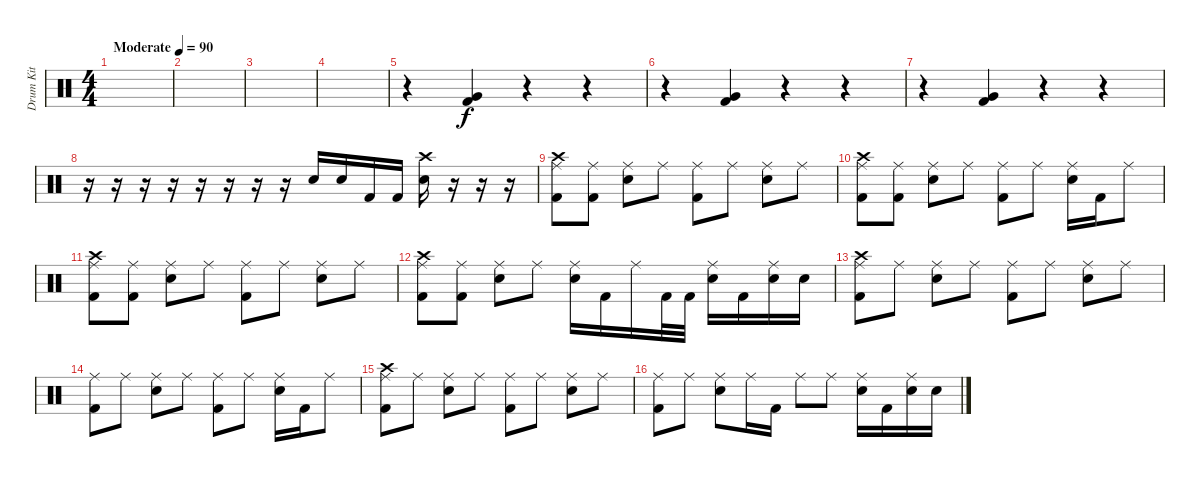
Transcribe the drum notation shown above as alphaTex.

\track ("Drum Kit" "Drum Kit") {instrument percussion}
\staff {score}
\articulation defaults
\ts (4 4)
\tempo (90 "Moderate")
\clef neutral
\ks c
|
|
|
|
r.4 ("Very Low Tom (hit)" "Kick (hit) 2").4 r.4 r.4 |
r.4 ("Very Low Tom (hit)" "Kick (hit) 2").4 r.4 r.4 |
r.4 ("Very Low Tom (hit)" "Kick (hit) 2").4 r.4 r.4 |
r.16 r.16 r.16 r.16 r.16 r.16 r.16 r.16 "Snare (hit) 2".16 "Snare (hit) 2".16 "Kick (hit) 2".16 "Kick (hit) 2".16 ("Crash high (hit)" "Snare (hit) 2").16 r.16 r.16 r.16 |
("Ride (middle)" "Crash high (hit)" "Kick (hit) 2").8 ("Ride (middle)" "Kick (hit) 2").8 ("Ride (middle)" "Snare (hit) 2").8 "Ride (middle)".8 ("Ride (middle)" "Kick (hit) 2").8 "Ride (middle)".8 ("Ride (middle)" "Snare (hit) 2").8 "Ride (middle)".8 |
("Ride (middle)" "Crash high (hit)" "Kick (hit) 2").8 ("Ride (middle)" "Kick (hit) 2").8 ("Ride (middle)" "Snare (hit) 2").8 "Ride (middle)".8 ("Ride (middle)" "Kick (hit) 2").8 "Ride (middle)".8 ("Ride (middle)" "Snare (hit) 2").16 "Kick (hit) 2".16 "Ride (middle)".8 |
("Ride (middle)" "Crash high (hit)" "Kick (hit) 2").8 ("Ride (middle)" "Kick (hit) 2").8 ("Ride (middle)" "Snare (hit) 2").8 "Ride (middle)".8 ("Ride (middle)" "Kick (hit) 2").8 "Ride (middle)".8 ("Ride (middle)" "Snare (hit) 2").8 "Ride (middle)".8 |
("Ride (middle)" "Crash high (hit)" "Kick (hit) 2").8 ("Ride (middle)" "Kick (hit) 2").8 ("Ride (middle)" "Snare (hit) 2").8 "Ride (middle)".8 ("Ride (middle)" "Snare (hit) 2").16 "Kick (hit) 2".16 "Ride (middle)".16 "Kick (hit) 2".32 "Kick (hit) 2".32 ("Ride (middle)" "Snare (hit) 2").16 "Kick (hit) 2".16 ("Ride (middle)" "Snare (hit) 2").16 "Snare (hit) 2".16 |
("Ride (middle)" "Crash high (hit)" "Kick (hit) 2").8 "Ride (middle)".8 ("Ride (middle)" "Snare (hit) 2").8 "Ride (middle)".8 ("Ride (middle)" "Kick (hit) 2").8 "Ride (middle)".8 ("Ride (middle)" "Snare (hit) 2").8 "Ride (middle)".8 |
("Ride (middle)" "Kick (hit) 2").8 "Ride (middle)".8 ("Ride (middle)" "Snare (hit) 2").8 "Ride (middle)".8 ("Ride (middle)" "Kick (hit) 2").8 "Ride (middle)".8 ("Ride (middle)" "Snare (hit) 2").16 "Kick (hit) 2".16 "Ride (middle)".8 |
("Ride (middle)" "Crash high (hit)" "Kick (hit) 2").8 "Ride (middle)".8 ("Ride (middle)" "Snare (hit) 2").8 "Ride (middle)".8 ("Ride (middle)" "Kick (hit) 2").8 "Ride (middle)".8 ("Ride (middle)" "Snare (hit) 2").8 "Ride (middle)".8 |
("Ride (middle)" "Kick (hit) 2").8 "Ride (middle)".8 ("Ride (middle)" "Snare (hit) 2").8 "Ride (middle)".16 "Kick (hit) 2".16 "Ride (middle)".8 "Ride (middle)".8 ("Ride (middle)" "Snare (hit) 2").16 "Kick (hit) 2".16 ("Ride (middle)" "Snare (hit) 2").16 "Snare (hit) 2".16
